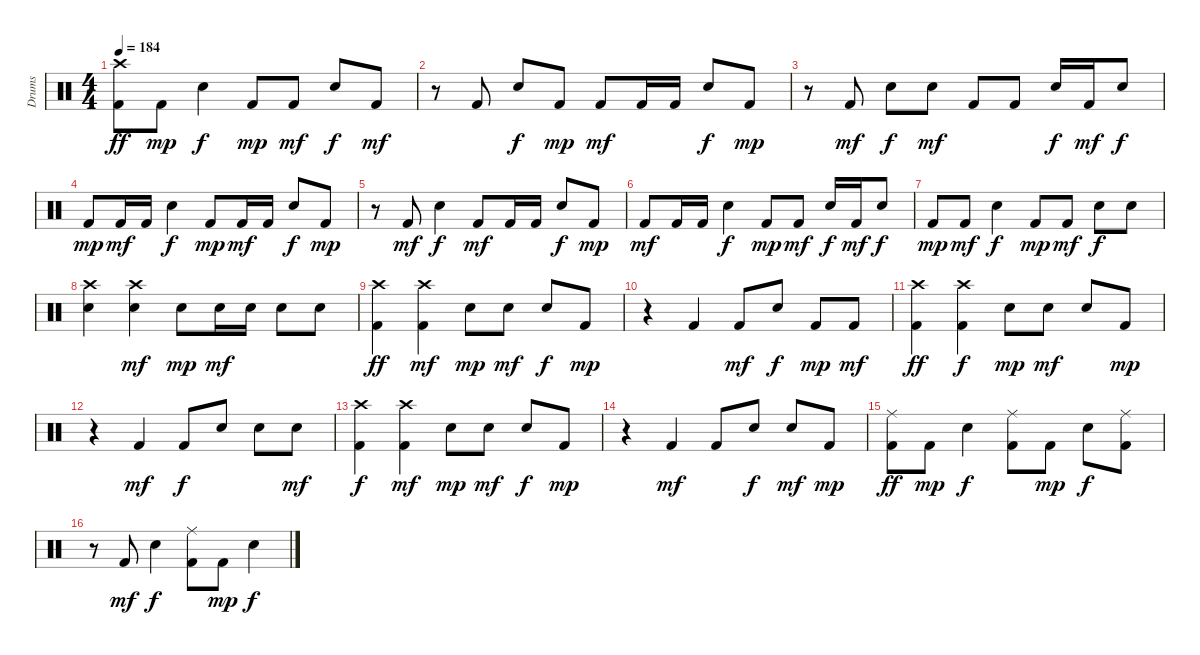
\track ("Drums" "Drums") {instrument percussion}
\staff {score}
\articulation defaults
\ts (4 4)
\tempo 184
\clef neutral
\ks c
("Kick (hit) 2" "Crash high (hit)").8{dy ff} "Kick (hit) 2".8{dy mp} "Snare (hit) 2".4{dy f} "Kick (hit) 2".8{dy mp} "Kick (hit) 2".8{dy mf} "Snare (hit) 2".8{dy f} "Kick (hit) 2".8{dy mf} |
r.8 "Kick (hit) 2".8 "Snare (hit) 2".8{dy f} "Kick (hit) 2".8{dy mp} "Kick (hit) 2".8{dy mf} "Kick (hit) 2".16 "Kick (hit) 2".16 "Snare (hit) 2".8{dy f} "Kick (hit) 2".8{dy mp} |
r.8 "Kick (hit) 2".8{dy mf} "Snare (hit) 2".8{dy f} "Snare (hit) 2".8{dy mf} "Kick (hit) 2".8 "Kick (hit) 2".8 "Snare (hit) 2".16{dy f} "Kick (hit) 2".16{dy mf} "Snare (hit) 2".8{dy f} |
"Kick (hit) 2".8{dy mp} "Kick (hit) 2".16{dy mf} "Kick (hit) 2".16 "Snare (hit) 2".4{dy f} "Kick (hit) 2".8{dy mp} "Kick (hit) 2".16{dy mf} "Kick (hit) 2".16 "Snare (hit) 2".8{dy f} "Kick (hit) 2".8{dy mp} |
r.8 "Kick (hit) 2".8{dy mf} "Snare (hit) 2".4{dy f} "Kick (hit) 2".8{dy mf} "Kick (hit) 2".16 "Kick (hit) 2".16 "Snare (hit) 2".8{dy f} "Kick (hit) 2".8{dy mp} |
"Kick (hit) 2".8{dy mf} "Kick (hit) 2".16 "Kick (hit) 2".16 "Snare (hit) 2".4{dy f} "Kick (hit) 2".8{dy mp} "Kick (hit) 2".8{dy mf} "Snare (hit) 2".16{dy f} "Kick (hit) 2".16{dy mf} "Snare (hit) 2".8{dy f} |
"Kick (hit) 2".8{dy mp} "Kick (hit) 2".8{dy mf} "Snare (hit) 2".4{dy f} "Kick (hit) 2".8{dy mp} "Kick (hit) 2".8{dy mf} "Snare (hit) 2".8{dy f} "Snare (hit) 2".8 |
("Snare (hit) 2" "Crash high (hit)").4 ("Snare (hit) 2" "Crash high (hit)").4{dy mf} "Snare (hit) 2".8{dy mp} "Snare (hit) 2".16{dy mf} "Snare (hit) 2".16 "Snare (hit) 2".8 "Snare (hit) 2".8 |
("Kick (hit) 2" "Crash high (hit)").4{dy ff} ("Kick (hit) 2" "Crash high (hit)").4{dy mf} "Snare (hit) 2".8{dy mp} "Snare (hit) 2".8{dy mf} "Snare (hit) 2".8{dy f} "Kick (hit) 2".8{dy mp} |
r.4 "Kick (hit) 2".4 "Kick (hit) 2".8{dy mf} "Snare (hit) 2".8{dy f} "Kick (hit) 2".8{dy mp} "Kick (hit) 2".8{dy mf} |
("Kick (hit) 2" "Crash high (hit)").4{dy ff} ("Kick (hit) 2" "Crash high (hit)").4{dy f} "Snare (hit) 2".8{dy mp} "Snare (hit) 2".8{dy mf} "Snare (hit) 2".8 "Kick (hit) 2".8{dy mp} |
r.4 "Kick (hit) 2".4{dy mf} "Kick (hit) 2".8{dy f} "Snare (hit) 2".8 "Snare (hit) 2".8 "Snare (hit) 2".8{dy mf} |
("Kick (hit) 2" "Crash high (hit)").4{dy f} ("Kick (hit) 2" "Crash high (hit)").4{dy mf} "Snare (hit) 2".8{dy mp} "Snare (hit) 2".8{dy mf} "Snare (hit) 2".8{dy f} "Kick (hit) 2".8{dy mp} |
r.4 "Kick (hit) 2".4{dy mf} "Kick (hit) 2".8 "Snare (hit) 2".8{dy f} "Snare (hit) 2".8{dy mf} "Kick (hit) 2".8{dy mp} |
("Kick (hit) 2" "Ride (middle)").8{dy ff} "Kick (hit) 2".8{dy mp} "Snare (hit) 2".4{dy f} ("Kick (hit) 2" "Ride (middle)").8 "Kick (hit) 2".8{dy mp} "Snare (hit) 2".8{dy f} ("Kick (hit) 2" "Ride (middle)").8 |
r.8 "Kick (hit) 2".8{dy mf} "Snare (hit) 2".4{dy f} ("Kick (hit) 2" "Ride (middle)").8 "Kick (hit) 2".8{dy mp} "Snare (hit) 2".4{dy f}
